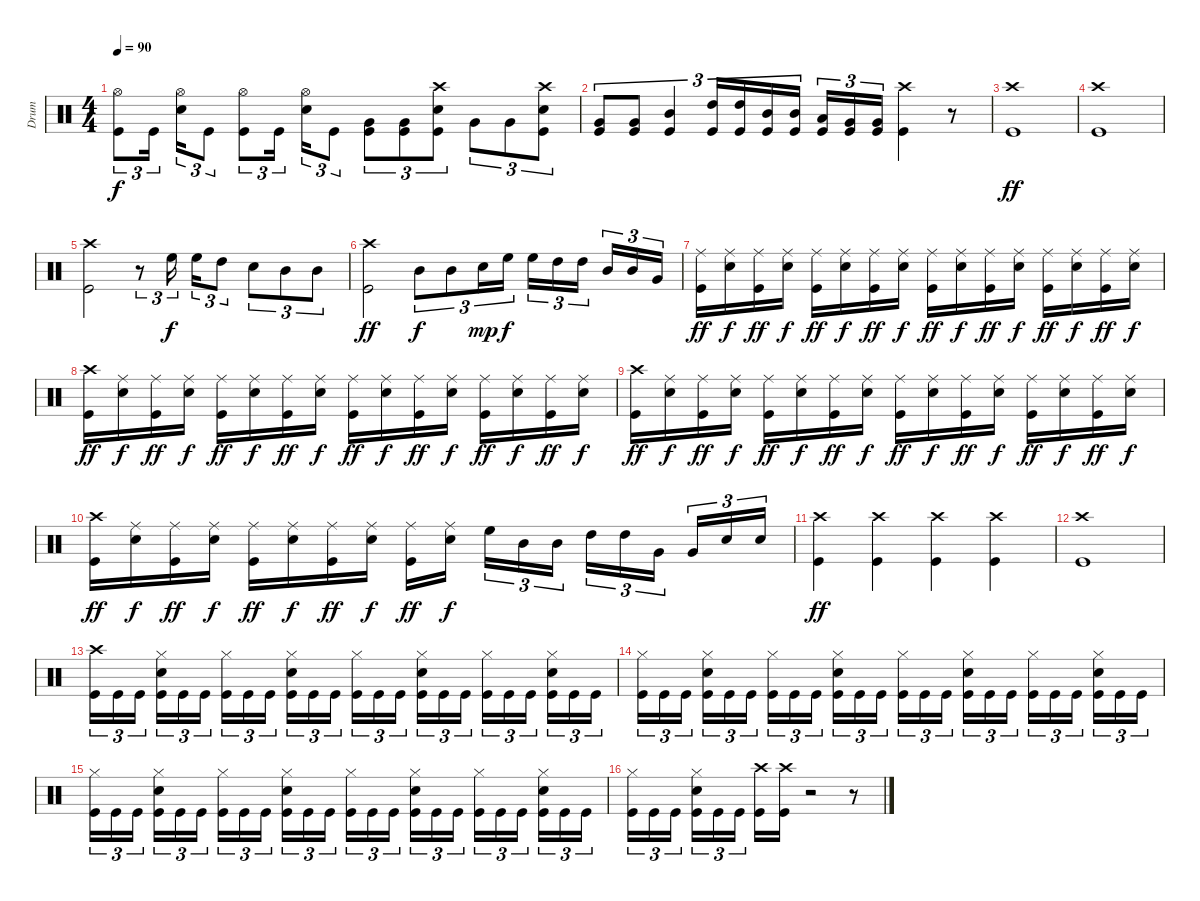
\track ("Drum" "Drum") {instrument percussion}
\staff {score}
\articulation defaults
\ts (4 4)
\tempo 90
\clef neutral
\ks c
("Hi-Hat (open)" "Kick (hit)").8{tu (3 2) dy f} "Kick (hit)".16{tu (3 2) beam splitsecondary} ("Hi-Hat (open)" "Electric Snare (hit)").16{tu (3 2)} "Kick (hit)".8{tu (3 2)} ("Hi-Hat (open)" "Kick (hit)").8{tu (3 2)} "Kick (hit)".16{tu (3 2) beam splitsecondary} ("Hi-Hat (open)" "Electric Snare (hit)").16{tu (3 2)} "Kick (hit)".8{tu (3 2)} ("Very Low Tom (hit)" "Kick (hit)").8{tu (3 2)} ("Very Low Tom (hit)" "Kick (hit)").8{tu (3 2)} ("Crash high (hit)" "Electric Snare (hit)" "Kick (hit)").8{tu (3 2)} "Very Low Tom (hit)".8{tu (3 2)} "Very Low Tom (hit)".8{tu (3 2)} ("Crash high (hit)" "Electric Snare (hit)" "Kick (hit)").8{tu (3 2)} |
("Very Low Tom (hit)" "Kick (hit)").8{tu (3 2)} ("Very Low Tom (hit)" "Kick (hit)").8{tu (3 2)} ("Mid Tom (hit)" "Kick (hit)").4{tu (3 2)} ("High Tom (hit)" "Kick (hit)").16{tu (3 2)} ("High Tom (hit)" "Kick (hit)").16{tu (3 2)} ("Mid Tom (hit)" "Kick (hit)").16{tu (3 2)} ("Mid Tom (hit)" "Kick (hit)").16{tu (3 2)} ("Low Tom (hit)" "Kick (hit)").16{tu (3 2)} ("Very Low Tom (hit)" "Kick (hit)").16{tu (3 2)} ("Very Low Tom (hit)" "Kick (hit)").16{tu (3 2)} ("Crash high (hit)" "Kick (hit)").4 r.8 |
("Crash high (hit)" "Kick (hit)").1{dy ff} |
("Crash high (hit)" "Kick (hit)").1 |
("Crash high (hit)" "Kick (hit)").2 r.8{tu (3 2)} "High Floor Tom (hit)".16{tu (3 2) dy f beam splitsecondary} "High Floor Tom (hit)".16{tu (3 2)} "High Tom (hit)".8{tu (3 2)} "Electric Snare (hit)".8{tu (3 2)} "Mid Tom (hit)".8{tu (3 2)} "Mid Tom (hit)".8{tu (3 2)} |
("Crash high (hit)" "Kick (hit)").2{dy ff} "Mid Tom (hit)".8{tu (3 2) dy f} "Mid Tom (hit)".8{tu (3 2)} "Snare (hit) 2".16{tu (3 2) dy mp} "High Floor Tom (hit)".16{tu (3 2) dy f} "High Floor Tom (hit)".16{tu (3 2)} "High Tom (hit)".16{tu (3 2)} "High Tom (hit)".16{tu (3 2) beam splitsecondary} "Mid Tom (hit)".16{tu (3 2)} "Mid Tom (hit)".16{tu (3 2)} "Very Low Tom (hit)".16{tu (3 2)} |
("Ride (middle)" "Kick (hit)").16{dy ff} ("Ride (middle)" "Electric Snare (hit)").16{dy f} ("Ride (middle)" "Kick (hit)").16{dy ff} ("Ride (middle)" "Electric Snare (hit)").16{dy f} ("Ride (middle)" "Kick (hit)").16{dy ff} ("Ride (middle)" "Electric Snare (hit)").16{dy f} ("Ride (middle)" "Kick (hit)").16{dy ff} ("Ride (middle)" "Electric Snare (hit)").16{dy f} ("Ride (middle)" "Kick (hit)").16{dy ff} ("Ride (middle)" "Electric Snare (hit)").16{dy f} ("Ride (middle)" "Kick (hit)").16{dy ff} ("Ride (middle)" "Electric Snare (hit)").16{dy f} ("Ride (middle)" "Kick (hit)").16{dy ff} ("Ride (middle)" "Electric Snare (hit)").16{dy f} ("Ride (middle)" "Kick (hit)").16{dy ff} ("Ride (middle)" "Electric Snare (hit)").16{dy f} |
("Crash high (hit)" "Kick (hit)").16{dy ff} ("Ride (middle)" "Electric Snare (hit)").16{dy f} ("Ride (middle)" "Kick (hit)").16{dy ff} ("Ride (middle)" "Electric Snare (hit)").16{dy f} ("Ride (middle)" "Kick (hit)").16{dy ff} ("Ride (middle)" "Electric Snare (hit)").16{dy f} ("Ride (middle)" "Kick (hit)").16{dy ff} ("Ride (middle)" "Electric Snare (hit)").16{dy f} ("Ride (middle)" "Kick (hit)").16{dy ff} ("Ride (middle)" "Electric Snare (hit)").16{dy f} ("Ride (middle)" "Kick (hit)").16{dy ff} ("Ride (middle)" "Electric Snare (hit)").16{dy f} ("Ride (middle)" "Kick (hit)").16{dy ff} ("Ride (middle)" "Electric Snare (hit)").16{dy f} ("Ride (middle)" "Kick (hit)").16{dy ff} ("Ride (middle)" "Electric Snare (hit)").16{dy f} |
("Crash high (hit)" "Kick (hit)").16{dy ff} ("Ride (middle)" "Electric Snare (hit)").16{dy f} ("Ride (middle)" "Kick (hit)").16{dy ff} ("Ride (middle)" "Electric Snare (hit)").16{dy f} ("Ride (middle)" "Kick (hit)").16{dy ff} ("Ride (middle)" "Electric Snare (hit)").16{dy f} ("Ride (middle)" "Kick (hit)").16{dy ff} ("Ride (middle)" "Electric Snare (hit)").16{dy f} ("Ride (middle)" "Kick (hit)").16{dy ff} ("Ride (middle)" "Electric Snare (hit)").16{dy f} ("Ride (middle)" "Kick (hit)").16{dy ff} ("Ride (middle)" "Electric Snare (hit)").16{dy f} ("Ride (middle)" "Kick (hit)").16{dy ff} ("Ride (middle)" "Electric Snare (hit)").16{dy f} ("Ride (middle)" "Kick (hit)").16{dy ff} ("Ride (middle)" "Electric Snare (hit)").16{dy f} |
("Crash high (hit)" "Kick (hit)").16{dy ff} ("Ride (middle)" "Electric Snare (hit)").16{dy f} ("Ride (middle)" "Kick (hit)").16{dy ff} ("Ride (middle)" "Electric Snare (hit)").16{dy f} ("Ride (middle)" "Kick (hit)").16{dy ff} ("Ride (middle)" "Electric Snare (hit)").16{dy f} ("Ride (middle)" "Kick (hit)").16{dy ff} ("Ride (middle)" "Electric Snare (hit)").16{dy f} ("Ride (middle)" "Kick (hit)").16{dy ff} ("Ride (middle)" "Electric Snare (hit)").16{dy f beam splitsecondary} "High Floor Tom (hit)".16{tu (3 2)} "Mid Tom (hit)".16{tu (3 2)} "Mid Tom (hit)".16{tu (3 2)} "High Tom (hit)".16{tu (3 2)} "High Tom (hit)".16{tu (3 2)} "Very Low Tom (hit)".16{tu (3 2) beam splitsecondary} "Very Low Tom (hit)".16{tu (3 2)} "Electric Snare (hit)".16{tu (3 2)} "Electric Snare (hit)".16{tu (3 2)} |
("Crash high (hit)" "Kick (hit)").4{dy ff} ("Crash high (hit)" "Kick (hit)").4 ("Crash high (hit)" "Kick (hit)").4 ("Crash high (hit)" "Kick (hit)").4 |
("Crash high (hit)" "Kick (hit)").1 |
("Crash high (hit)" "Kick (hit)").16{tu (3 2) volume 13} "Kick (hit)".16{tu (3 2)} "Kick (hit)".16{tu (3 2) beam splitsecondary} ("Hi-Hat (closed)" "Snare (hit) 2" "Kick (hit)").16{tu (3 2)} "Kick (hit)".16{tu (3 2)} "Kick (hit)".16{tu (3 2)} ("Hi-Hat (closed)" "Kick (hit)").16{tu (3 2)} "Kick (hit)".16{tu (3 2)} "Kick (hit)".16{tu (3 2) beam splitsecondary} ("Hi-Hat (closed)" "Snare (hit) 2" "Kick (hit)").16{tu (3 2)} "Kick (hit)".16{tu (3 2)} "Kick (hit)".16{tu (3 2)} ("Hi-Hat (closed)" "Kick (hit)").16{tu (3 2)} "Kick (hit)".16{tu (3 2)} "Kick (hit)".16{tu (3 2) beam splitsecondary} ("Hi-Hat (closed)" "Snare (hit) 2" "Kick (hit)").16{tu (3 2)} "Kick (hit)".16{tu (3 2)} "Kick (hit)".16{tu (3 2)} ("Hi-Hat (closed)" "Kick (hit)").16{tu (3 2)} "Kick (hit)".16{tu (3 2)} "Kick (hit)".16{tu (3 2) beam splitsecondary} ("Hi-Hat (closed)" "Snare (hit) 2" "Kick (hit)").16{tu (3 2)} "Kick (hit)".16{tu (3 2)} "Kick (hit)".16{tu (3 2)} |
("Hi-Hat (closed)" "Kick (hit)").16{tu (3 2) volume 13} "Kick (hit)".16{tu (3 2)} "Kick (hit)".16{tu (3 2) beam splitsecondary} ("Hi-Hat (closed)" "Snare (hit) 2" "Kick (hit)").16{tu (3 2)} "Kick (hit)".16{tu (3 2)} "Kick (hit)".16{tu (3 2)} ("Hi-Hat (closed)" "Kick (hit)").16{tu (3 2)} "Kick (hit)".16{tu (3 2)} "Kick (hit)".16{tu (3 2) beam splitsecondary} ("Hi-Hat (closed)" "Snare (hit) 2" "Kick (hit)").16{tu (3 2)} "Kick (hit)".16{tu (3 2)} "Kick (hit)".16{tu (3 2)} ("Hi-Hat (closed)" "Kick (hit)").16{tu (3 2)} "Kick (hit)".16{tu (3 2)} "Kick (hit)".16{tu (3 2) beam splitsecondary} ("Hi-Hat (closed)" "Snare (hit) 2" "Kick (hit)").16{tu (3 2)} "Kick (hit)".16{tu (3 2)} "Kick (hit)".16{tu (3 2)} ("Hi-Hat (closed)" "Kick (hit)").16{tu (3 2)} "Kick (hit)".16{tu (3 2)} "Kick (hit)".16{tu (3 2) beam splitsecondary} ("Hi-Hat (closed)" "Snare (hit) 2" "Kick (hit)").16{tu (3 2)} "Kick (hit)".16{tu (3 2)} "Kick (hit)".16{tu (3 2)} |
("Hi-Hat (closed)" "Kick (hit)").16{tu (3 2) volume 13} "Kick (hit)".16{tu (3 2)} "Kick (hit)".16{tu (3 2) beam splitsecondary} ("Hi-Hat (closed)" "Snare (hit) 2" "Kick (hit)").16{tu (3 2)} "Kick (hit)".16{tu (3 2)} "Kick (hit)".16{tu (3 2)} ("Hi-Hat (closed)" "Kick (hit)").16{tu (3 2)} "Kick (hit)".16{tu (3 2)} "Kick (hit)".16{tu (3 2) beam splitsecondary} ("Hi-Hat (closed)" "Snare (hit) 2" "Kick (hit)").16{tu (3 2)} "Kick (hit)".16{tu (3 2)} "Kick (hit)".16{tu (3 2)} ("Hi-Hat (closed)" "Kick (hit)").16{tu (3 2)} "Kick (hit)".16{tu (3 2)} "Kick (hit)".16{tu (3 2) beam splitsecondary} ("Hi-Hat (closed)" "Snare (hit) 2" "Kick (hit)").16{tu (3 2)} "Kick (hit)".16{tu (3 2)} "Kick (hit)".16{tu (3 2)} ("Hi-Hat (closed)" "Kick (hit)").16{tu (3 2)} "Kick (hit)".16{tu (3 2)} "Kick (hit)".16{tu (3 2) beam splitsecondary} ("Hi-Hat (closed)" "Snare (hit) 2" "Kick (hit)").16{tu (3 2)} "Kick (hit)".16{tu (3 2)} "Kick (hit)".16{tu (3 2)} |
("Hi-Hat (closed)" "Kick (hit)").16{tu (3 2) volume 13} "Kick (hit)".16{tu (3 2)} "Kick (hit)".16{tu (3 2) beam splitsecondary} ("Hi-Hat (closed)" "Snare (hit) 2" "Kick (hit)").16{tu (3 2)} "Kick (hit)".16{tu (3 2)} "Kick (hit)".16{tu (3 2)} ("Crash high (hit)" "Kick (hit)").16 ("Crash high (hit)" "Kick (hit)").16 r.2 r.8
